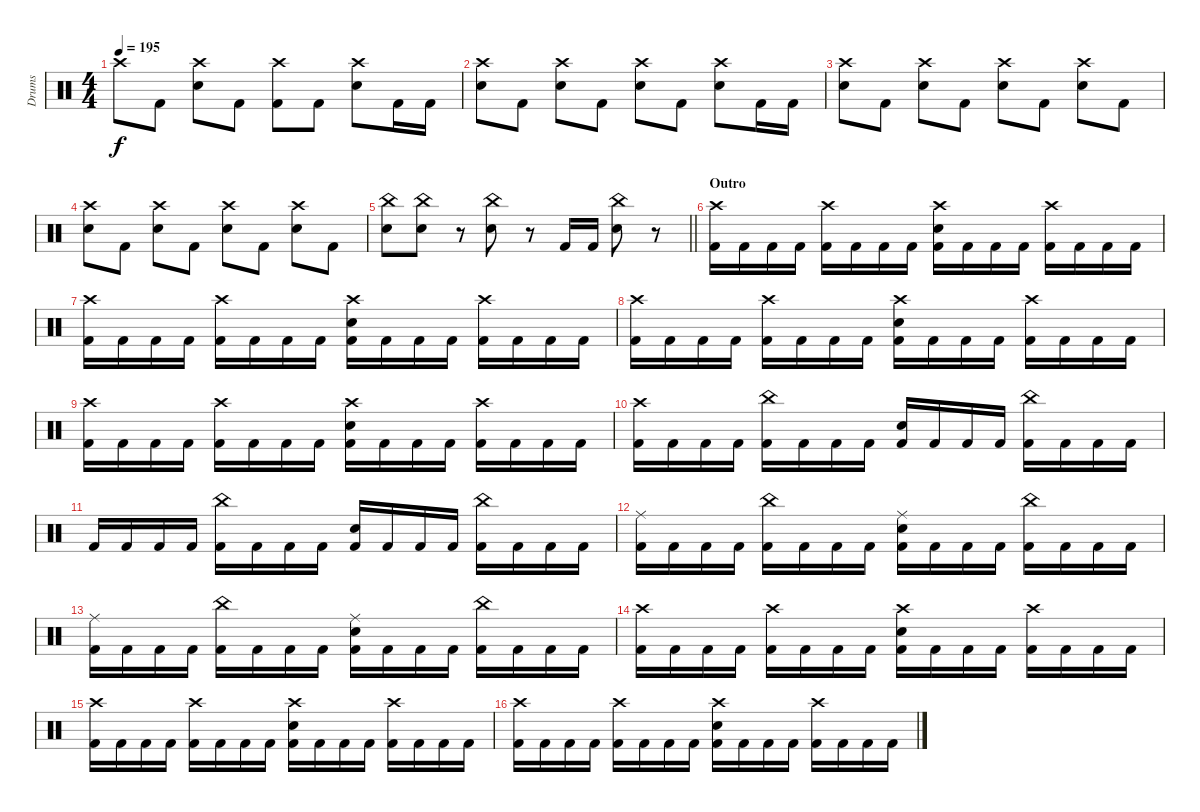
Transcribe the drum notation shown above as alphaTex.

\track ("Drums" "Drums") {instrument percussion}
\staff {score}
\articulation defaults
\ts (4 4)
\tempo 195
\clef neutral
\ks c "Crash high (hit)".8{dy f} "Kick (hit) 2".8
("Crash high (hit)" "Snare (hit) 2").8 "Kick (hit) 2".8 ("Crash high (hit)" "Kick (hit) 2").8 "Kick (hit) 2".8 ("Crash high (hit)" "Snare (hit) 2").8 "Kick (hit) 2".16 "Kick (hit) 2".16 |
("Crash high (hit)" "Snare (hit) 2").8 "Kick (hit) 2".8 ("Crash high (hit)" "Snare (hit) 2").8 "Kick (hit) 2".8 ("Crash high (hit)" "Snare (hit) 2").8 "Kick (hit) 2".8 ("Crash high (hit)" "Snare (hit) 2").8 "Kick (hit) 2".16 "Kick (hit) 2".16 |
("Crash high (hit)" "Snare (hit) 2").8 "Kick (hit) 2".8 ("Crash high (hit)" "Snare (hit) 2").8 "Kick (hit) 2".8 ("Crash high (hit)" "Snare (hit) 2").8 "Kick (hit) 2".8 ("Crash high (hit)" "Snare (hit) 2").8 "Kick (hit) 2".8 |
("Crash high (hit)" "Snare (hit) 2").8 "Kick (hit) 2".8 ("Crash high (hit)" "Snare (hit) 2").8 "Kick (hit) 2".8 ("Crash high (hit)" "Snare (hit) 2").8 "Kick (hit) 2".8 ("Crash high (hit)" "Snare (hit) 2").8 "Kick (hit) 2".8 |
\barLineRight lightlight
("China (hit)" "Snare (hit) 2").8 ("China (hit)" "Snare (hit) 2").8 r.8 ("China (hit)" "Snare (hit) 2").8 r.8 "Kick (hit) 2".16 "Kick (hit) 2".16 ("China (hit)" "Snare (hit) 2").8 r.8 |
\section ("" "Outro")
("Crash high (hit)" "Kick (hit) 2").16 "Kick (hit) 2".16 "Kick (hit) 2".16 "Kick (hit) 2".16 ("Crash high (hit)" "Kick (hit) 2").16 "Kick (hit) 2".16 "Kick (hit) 2".16 "Kick (hit) 2".16 ("Crash high (hit)" "Snare (hit) 2" "Kick (hit) 2").16 "Kick (hit) 2".16 "Kick (hit) 2".16 "Kick (hit) 2".16 ("Crash high (hit)" "Kick (hit) 2").16 "Kick (hit) 2".16 "Kick (hit) 2".16 "Kick (hit) 2".16 |
("Crash high (hit)" "Kick (hit) 2").16 "Kick (hit) 2".16 "Kick (hit) 2".16 "Kick (hit) 2".16 ("Crash high (hit)" "Kick (hit) 2").16 "Kick (hit) 2".16 "Kick (hit) 2".16 "Kick (hit) 2".16 ("Crash high (hit)" "Snare (hit) 2" "Kick (hit) 2").16 "Kick (hit) 2".16 "Kick (hit) 2".16 "Kick (hit) 2".16 ("Crash high (hit)" "Kick (hit) 2").16 "Kick (hit) 2".16 "Kick (hit) 2".16 "Kick (hit) 2".16 |
("Crash high (hit)" "Kick (hit) 2").16 "Kick (hit) 2".16 "Kick (hit) 2".16 "Kick (hit) 2".16 ("Crash high (hit)" "Kick (hit) 2").16 "Kick (hit) 2".16 "Kick (hit) 2".16 "Kick (hit) 2".16 ("Crash high (hit)" "Snare (hit) 2" "Kick (hit) 2").16 "Kick (hit) 2".16 "Kick (hit) 2".16 "Kick (hit) 2".16 ("Crash high (hit)" "Kick (hit) 2").16 "Kick (hit) 2".16 "Kick (hit) 2".16 "Kick (hit) 2".16 |
("Crash high (hit)" "Kick (hit) 2").16 "Kick (hit) 2".16 "Kick (hit) 2".16 "Kick (hit) 2".16 ("Crash high (hit)" "Kick (hit) 2").16 "Kick (hit) 2".16 "Kick (hit) 2".16 "Kick (hit) 2".16 ("Crash high (hit)" "Snare (hit) 2" "Kick (hit) 2").16 "Kick (hit) 2".16 "Kick (hit) 2".16 "Kick (hit) 2".16 ("Crash high (hit)" "Kick (hit) 2").16 "Kick (hit) 2".16 "Kick (hit) 2".16 "Kick (hit) 2".16 |
("Crash high (hit)" "Kick (hit) 2").16 "Kick (hit) 2".16 "Kick (hit) 2".16 "Kick (hit) 2".16 ("China (hit)" "Kick (hit) 2").16 "Kick (hit) 2".16 "Kick (hit) 2".16 "Kick (hit) 2".16 ("Snare (hit) 2" "Kick (hit) 2").16 "Kick (hit) 2".16 "Kick (hit) 2".16 "Kick (hit) 2".16 ("China (hit)" "Kick (hit) 2").16 "Kick (hit) 2".16 "Kick (hit) 2".16 "Kick (hit) 2".16 |
"Kick (hit) 2".16 "Kick (hit) 2".16 "Kick (hit) 2".16 "Kick (hit) 2".16 ("China (hit)" "Kick (hit) 2").16 "Kick (hit) 2".16 "Kick (hit) 2".16 "Kick (hit) 2".16 ("Snare (hit) 2" "Kick (hit) 2").16 "Kick (hit) 2".16 "Kick (hit) 2".16 "Kick (hit) 2".16 ("China (hit)" "Kick (hit) 2").16 "Kick (hit) 2".16 "Kick (hit) 2".16 "Kick (hit) 2".16 |
("Ride (middle)" "Kick (hit) 2").16 "Kick (hit) 2".16 "Kick (hit) 2".16 "Kick (hit) 2".16 ("China (hit)" "Kick (hit) 2").16 "Kick (hit) 2".16 "Kick (hit) 2".16 "Kick (hit) 2".16 ("Ride (middle)" "Snare (hit) 2" "Kick (hit) 2").16 "Kick (hit) 2".16 "Kick (hit) 2".16 "Kick (hit) 2".16 ("China (hit)" "Kick (hit) 2").16 "Kick (hit) 2".16 "Kick (hit) 2".16 "Kick (hit) 2".16 |
("Ride (middle)" "Kick (hit) 2").16 "Kick (hit) 2".16 "Kick (hit) 2".16 "Kick (hit) 2".16 ("China (hit)" "Kick (hit) 2").16 "Kick (hit) 2".16 "Kick (hit) 2".16 "Kick (hit) 2".16 ("Ride (middle)" "Snare (hit) 2" "Kick (hit) 2").16 "Kick (hit) 2".16 "Kick (hit) 2".16 "Kick (hit) 2".16 ("China (hit)" "Kick (hit) 2").16 "Kick (hit) 2".16 "Kick (hit) 2".16 "Kick (hit) 2".16 |
("Crash high (hit)" "Kick (hit) 2").16 "Kick (hit) 2".16 "Kick (hit) 2".16 "Kick (hit) 2".16 ("Crash high (hit)" "Kick (hit) 2").16 "Kick (hit) 2".16 "Kick (hit) 2".16 "Kick (hit) 2".16 ("Crash high (hit)" "Snare (hit) 2" "Kick (hit) 2").16 "Kick (hit) 2".16 "Kick (hit) 2".16 "Kick (hit) 2".16 ("Crash high (hit)" "Kick (hit) 2").16 "Kick (hit) 2".16 "Kick (hit) 2".16 "Kick (hit) 2".16 |
("Crash high (hit)" "Kick (hit) 2").16 "Kick (hit) 2".16 "Kick (hit) 2".16 "Kick (hit) 2".16 ("Crash high (hit)" "Kick (hit) 2").16 "Kick (hit) 2".16 "Kick (hit) 2".16 "Kick (hit) 2".16 ("Crash high (hit)" "Snare (hit) 2" "Kick (hit) 2").16 "Kick (hit) 2".16 "Kick (hit) 2".16 "Kick (hit) 2".16 ("Crash high (hit)" "Kick (hit) 2").16 "Kick (hit) 2".16 "Kick (hit) 2".16 "Kick (hit) 2".16 |
("Crash high (hit)" "Kick (hit) 2").16 "Kick (hit) 2".16 "Kick (hit) 2".16 "Kick (hit) 2".16 ("Crash high (hit)" "Kick (hit) 2").16 "Kick (hit) 2".16 "Kick (hit) 2".16 "Kick (hit) 2".16 ("Crash high (hit)" "Snare (hit) 2" "Kick (hit) 2").16 "Kick (hit) 2".16 "Kick (hit) 2".16 "Kick (hit) 2".16 ("Crash high (hit)" "Kick (hit) 2").16 "Kick (hit) 2".16 "Kick (hit) 2".16 "Kick (hit) 2".16
